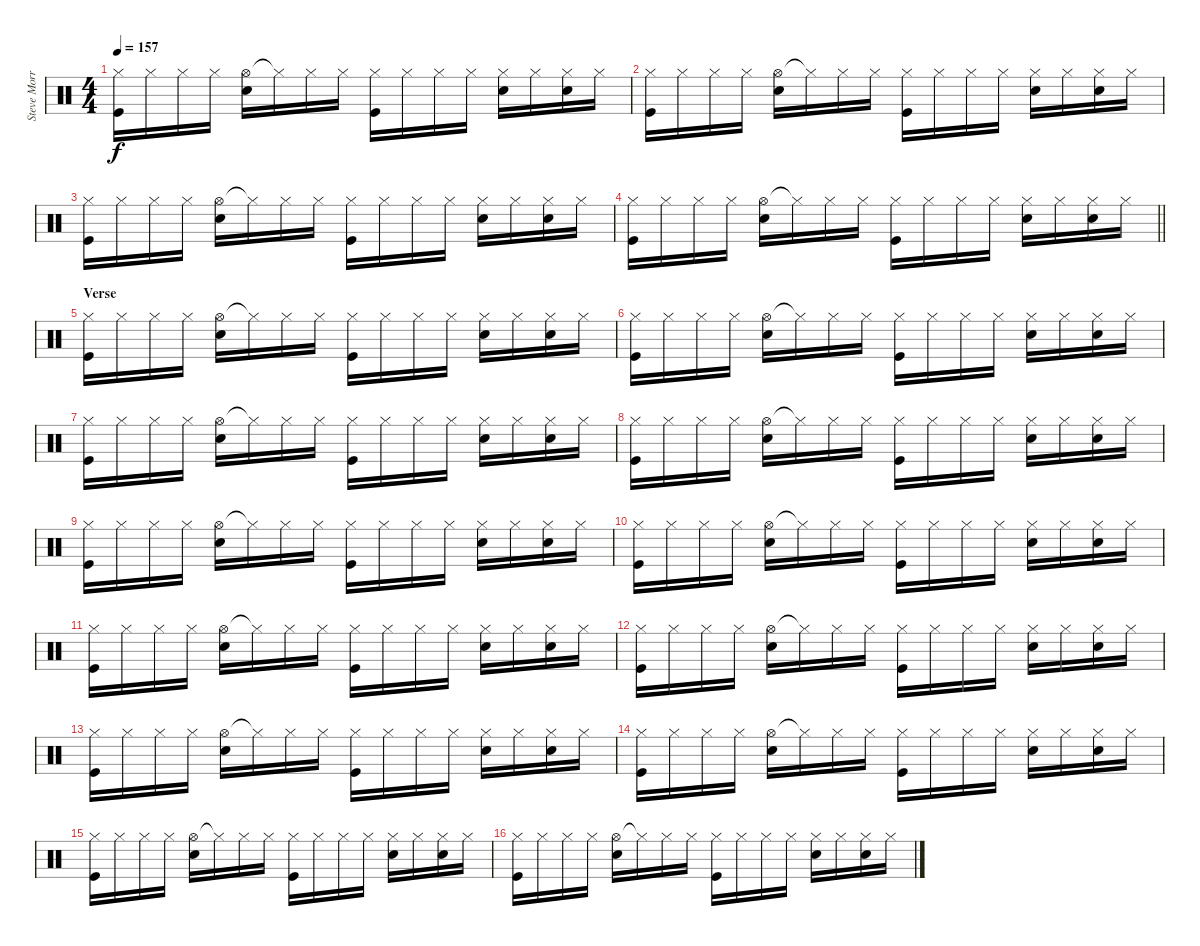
\track ("Steve Morris" "Steve Morr") {instrument percussion}
\staff {score}
\articulation defaults
\ts (4 4)
\tempo 157
\clef neutral
\ks c
("Hi-Hat (closed)" "Kick (hit)").16{dy f} "Hi-Hat (closed)".16 "Hi-Hat (closed)".16 "Hi-Hat (closed)".16 ("Hi-Hat (open)" "Electric Snare (hit)").16 "Hi-Hat (closed)"{t}.16 "Hi-Hat (closed)".16 "Hi-Hat (closed)".16 ("Hi-Hat (closed)" "Kick (hit)").16 "Hi-Hat (closed)".16 "Hi-Hat (closed)".16 "Hi-Hat (closed)".16 ("Hi-Hat (closed)" "Electric Snare (hit)").16 "Hi-Hat (closed)".16 ("Hi-Hat (closed)" "Electric Snare (hit)").16 "Hi-Hat (closed)".16 |
("Hi-Hat (closed)" "Kick (hit)").16 "Hi-Hat (closed)".16 "Hi-Hat (closed)".16 "Hi-Hat (closed)".16 ("Hi-Hat (open)" "Electric Snare (hit)").16 "Hi-Hat (closed)"{t}.16 "Hi-Hat (closed)".16 "Hi-Hat (closed)".16 ("Hi-Hat (closed)" "Kick (hit)").16 "Hi-Hat (closed)".16 "Hi-Hat (closed)".16 "Hi-Hat (closed)".16 ("Hi-Hat (closed)" "Electric Snare (hit)").16 "Hi-Hat (closed)".16 ("Hi-Hat (closed)" "Electric Snare (hit)").16 "Hi-Hat (closed)".16 |
("Hi-Hat (closed)" "Kick (hit)").16 "Hi-Hat (closed)".16 "Hi-Hat (closed)".16 "Hi-Hat (closed)".16 ("Hi-Hat (open)" "Electric Snare (hit)").16 "Hi-Hat (closed)"{t}.16 "Hi-Hat (closed)".16 "Hi-Hat (closed)".16 ("Hi-Hat (closed)" "Kick (hit)").16 "Hi-Hat (closed)".16 "Hi-Hat (closed)".16 "Hi-Hat (closed)".16 ("Hi-Hat (closed)" "Electric Snare (hit)").16 "Hi-Hat (closed)".16 ("Hi-Hat (closed)" "Electric Snare (hit)").16 "Hi-Hat (closed)".16 |
\barLineRight lightlight
("Hi-Hat (closed)" "Kick (hit)").16 "Hi-Hat (closed)".16 "Hi-Hat (closed)".16 "Hi-Hat (closed)".16 ("Hi-Hat (open)" "Electric Snare (hit)").16 "Hi-Hat (closed)"{t}.16 "Hi-Hat (closed)".16 "Hi-Hat (closed)".16 ("Hi-Hat (closed)" "Kick (hit)").16 "Hi-Hat (closed)".16 "Hi-Hat (closed)".16 "Hi-Hat (closed)".16 ("Hi-Hat (closed)" "Electric Snare (hit)").16 "Hi-Hat (closed)".16 ("Hi-Hat (closed)" "Electric Snare (hit)").16 "Hi-Hat (closed)".16 |
\section ("" "Verse")
("Hi-Hat (closed)" "Kick (hit)").16 "Hi-Hat (closed)".16 "Hi-Hat (closed)".16 "Hi-Hat (closed)".16 ("Hi-Hat (open)" "Electric Snare (hit)").16 "Hi-Hat (closed)"{t}.16 "Hi-Hat (closed)".16 "Hi-Hat (closed)".16 ("Hi-Hat (closed)" "Kick (hit)").16 "Hi-Hat (closed)".16 "Hi-Hat (closed)".16 "Hi-Hat (closed)".16 ("Hi-Hat (closed)" "Electric Snare (hit)").16 "Hi-Hat (closed)".16 ("Hi-Hat (closed)" "Electric Snare (hit)").16 "Hi-Hat (closed)".16 |
("Hi-Hat (closed)" "Kick (hit)").16 "Hi-Hat (closed)".16 "Hi-Hat (closed)".16 "Hi-Hat (closed)".16 ("Hi-Hat (open)" "Electric Snare (hit)").16 "Hi-Hat (closed)"{t}.16 "Hi-Hat (closed)".16 "Hi-Hat (closed)".16 ("Hi-Hat (closed)" "Kick (hit)").16 "Hi-Hat (closed)".16 "Hi-Hat (closed)".16 "Hi-Hat (closed)".16 ("Hi-Hat (closed)" "Electric Snare (hit)").16 "Hi-Hat (closed)".16 ("Hi-Hat (closed)" "Electric Snare (hit)").16 "Hi-Hat (closed)".16 |
("Hi-Hat (closed)" "Kick (hit)").16 "Hi-Hat (closed)".16 "Hi-Hat (closed)".16 "Hi-Hat (closed)".16 ("Hi-Hat (open)" "Electric Snare (hit)").16 "Hi-Hat (closed)"{t}.16 "Hi-Hat (closed)".16 "Hi-Hat (closed)".16 ("Hi-Hat (closed)" "Kick (hit)").16 "Hi-Hat (closed)".16 "Hi-Hat (closed)".16 "Hi-Hat (closed)".16 ("Hi-Hat (closed)" "Electric Snare (hit)").16 "Hi-Hat (closed)".16 ("Hi-Hat (closed)" "Electric Snare (hit)").16 "Hi-Hat (closed)".16 |
("Hi-Hat (closed)" "Kick (hit)").16 "Hi-Hat (closed)".16 "Hi-Hat (closed)".16 "Hi-Hat (closed)".16 ("Hi-Hat (open)" "Electric Snare (hit)").16 "Hi-Hat (closed)"{t}.16 "Hi-Hat (closed)".16 "Hi-Hat (closed)".16 ("Hi-Hat (closed)" "Kick (hit)").16 "Hi-Hat (closed)".16 "Hi-Hat (closed)".16 "Hi-Hat (closed)".16 ("Hi-Hat (closed)" "Electric Snare (hit)").16 "Hi-Hat (closed)".16 ("Hi-Hat (closed)" "Electric Snare (hit)").16 "Hi-Hat (closed)".16 |
("Hi-Hat (closed)" "Kick (hit)").16 "Hi-Hat (closed)".16 "Hi-Hat (closed)".16 "Hi-Hat (closed)".16 ("Hi-Hat (open)" "Electric Snare (hit)").16 "Hi-Hat (closed)"{t}.16 "Hi-Hat (closed)".16 "Hi-Hat (closed)".16 ("Hi-Hat (closed)" "Kick (hit)").16 "Hi-Hat (closed)".16 "Hi-Hat (closed)".16 "Hi-Hat (closed)".16 ("Hi-Hat (closed)" "Electric Snare (hit)").16 "Hi-Hat (closed)".16 ("Hi-Hat (closed)" "Electric Snare (hit)").16 "Hi-Hat (closed)".16 |
("Hi-Hat (closed)" "Kick (hit)").16 "Hi-Hat (closed)".16 "Hi-Hat (closed)".16 "Hi-Hat (closed)".16 ("Hi-Hat (open)" "Electric Snare (hit)").16 "Hi-Hat (closed)"{t}.16 "Hi-Hat (closed)".16 "Hi-Hat (closed)".16 ("Hi-Hat (closed)" "Kick (hit)").16 "Hi-Hat (closed)".16 "Hi-Hat (closed)".16 "Hi-Hat (closed)".16 ("Hi-Hat (closed)" "Electric Snare (hit)").16 "Hi-Hat (closed)".16 ("Hi-Hat (closed)" "Electric Snare (hit)").16 "Hi-Hat (closed)".16 |
("Hi-Hat (closed)" "Kick (hit)").16 "Hi-Hat (closed)".16 "Hi-Hat (closed)".16 "Hi-Hat (closed)".16 ("Hi-Hat (open)" "Electric Snare (hit)").16 "Hi-Hat (closed)"{t}.16 "Hi-Hat (closed)".16 "Hi-Hat (closed)".16 ("Hi-Hat (closed)" "Kick (hit)").16 "Hi-Hat (closed)".16 "Hi-Hat (closed)".16 "Hi-Hat (closed)".16 ("Hi-Hat (closed)" "Electric Snare (hit)").16 "Hi-Hat (closed)".16 ("Hi-Hat (closed)" "Electric Snare (hit)").16 "Hi-Hat (closed)".16 |
("Hi-Hat (closed)" "Kick (hit)").16 "Hi-Hat (closed)".16 "Hi-Hat (closed)".16 "Hi-Hat (closed)".16 ("Hi-Hat (open)" "Electric Snare (hit)").16 "Hi-Hat (closed)"{t}.16 "Hi-Hat (closed)".16 "Hi-Hat (closed)".16 ("Hi-Hat (closed)" "Kick (hit)").16 "Hi-Hat (closed)".16 "Hi-Hat (closed)".16 "Hi-Hat (closed)".16 ("Hi-Hat (closed)" "Electric Snare (hit)").16 "Hi-Hat (closed)".16 ("Hi-Hat (closed)" "Electric Snare (hit)").16 "Hi-Hat (closed)".16 |
("Hi-Hat (closed)" "Kick (hit)").16 "Hi-Hat (closed)".16 "Hi-Hat (closed)".16 "Hi-Hat (closed)".16 ("Hi-Hat (open)" "Electric Snare (hit)").16 "Hi-Hat (closed)"{t}.16 "Hi-Hat (closed)".16 "Hi-Hat (closed)".16 ("Hi-Hat (closed)" "Kick (hit)").16 "Hi-Hat (closed)".16 "Hi-Hat (closed)".16 "Hi-Hat (closed)".16 ("Hi-Hat (closed)" "Electric Snare (hit)").16 "Hi-Hat (closed)".16 ("Hi-Hat (closed)" "Electric Snare (hit)").16 "Hi-Hat (closed)".16 |
("Hi-Hat (closed)" "Kick (hit)").16 "Hi-Hat (closed)".16 "Hi-Hat (closed)".16 "Hi-Hat (closed)".16 ("Hi-Hat (open)" "Electric Snare (hit)").16 "Hi-Hat (closed)"{t}.16 "Hi-Hat (closed)".16 "Hi-Hat (closed)".16 ("Hi-Hat (closed)" "Kick (hit)").16 "Hi-Hat (closed)".16 "Hi-Hat (closed)".16 "Hi-Hat (closed)".16 ("Hi-Hat (closed)" "Electric Snare (hit)").16 "Hi-Hat (closed)".16 ("Hi-Hat (closed)" "Electric Snare (hit)").16 "Hi-Hat (closed)".16 |
("Hi-Hat (closed)" "Kick (hit)").16 "Hi-Hat (closed)".16 "Hi-Hat (closed)".16 "Hi-Hat (closed)".16 ("Hi-Hat (open)" "Electric Snare (hit)").16 "Hi-Hat (closed)"{t}.16 "Hi-Hat (closed)".16 "Hi-Hat (closed)".16 ("Hi-Hat (closed)" "Kick (hit)").16 "Hi-Hat (closed)".16 "Hi-Hat (closed)".16 "Hi-Hat (closed)".16 ("Hi-Hat (closed)" "Electric Snare (hit)").16 "Hi-Hat (closed)".16 ("Hi-Hat (closed)" "Electric Snare (hit)").16 "Hi-Hat (closed)".16 |
("Hi-Hat (closed)" "Kick (hit)").16 "Hi-Hat (closed)".16 "Hi-Hat (closed)".16 "Hi-Hat (closed)".16 ("Hi-Hat (open)" "Electric Snare (hit)").16 "Hi-Hat (closed)"{t}.16 "Hi-Hat (closed)".16 "Hi-Hat (closed)".16 ("Hi-Hat (closed)" "Kick (hit)").16 "Hi-Hat (closed)".16 "Hi-Hat (closed)".16 "Hi-Hat (closed)".16 ("Hi-Hat (closed)" "Electric Snare (hit)").16 "Hi-Hat (closed)".16 ("Hi-Hat (closed)" "Electric Snare (hit)").16 "Hi-Hat (closed)".16
